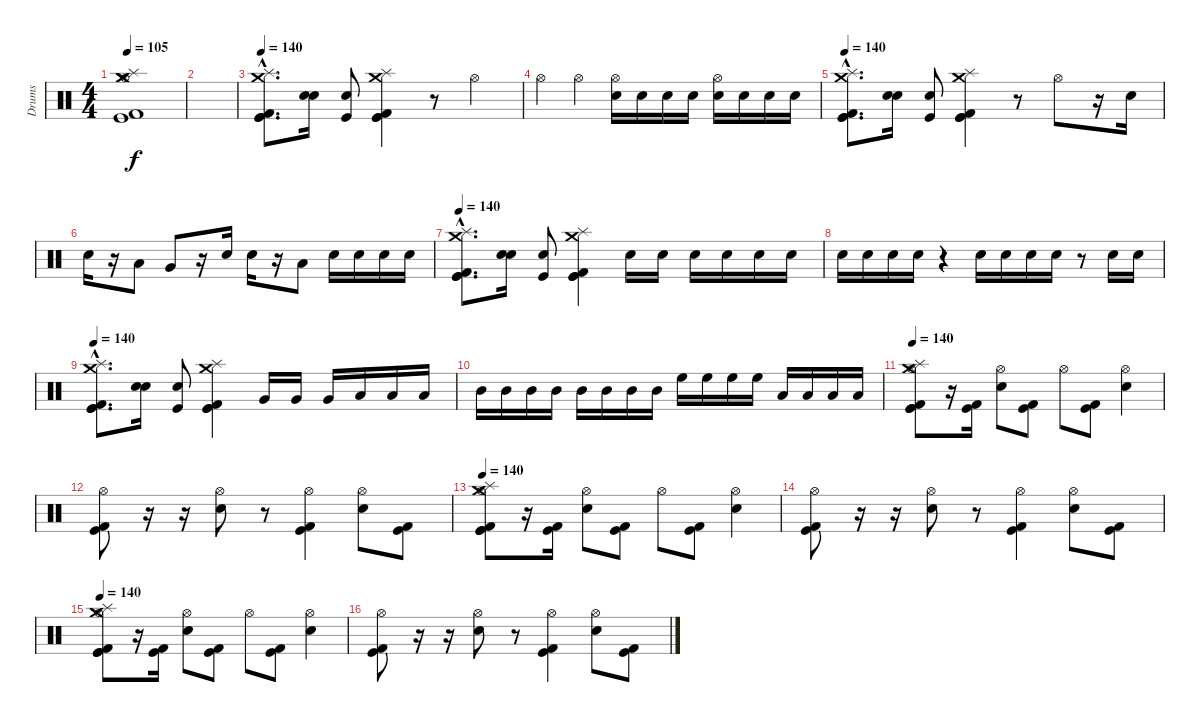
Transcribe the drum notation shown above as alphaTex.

\track ("Drums" "Drums") {instrument percussion}
\staff {score}
\articulation defaults
\ts (4 4)
\tempo 105
\clef neutral
\ks c
("Hi-Hat (open)" "Splash (hit)" "Kick (hit)" "Kick (hit) 2" "Crash medium (hit)" "Crash medium (hit)").1{dy f} |
|
\tempo 140
("Crash medium (hit)"{hac} "Splash (hit)"{hac} "Kick (hit)"{hac} "Kick (hit) 2"{hac} "Kick (hit)"{hac}).8{d} ("Snare (hit) 2" "Electric Snare (hit)").16 ("Kick (hit)" "Electric Snare (hit)").8 ("Crash medium (hit)" "Splash (hit)" "Kick (hit)" "Kick (hit) 2" "Kick (hit)").4 r.8 "Hi-Hat (open)".4 |
"Hi-Hat (open)".4 "Hi-Hat (open)".4 ("Hi-Hat (open)" "Snare (hit) 2").16 "Snare (hit) 2".16 "Snare (hit) 2".16 "Snare (hit) 2".16 ("Hi-Hat (open)" "Snare (hit) 2").16 "Snare (hit) 2".16 "Snare (hit) 2".16 "Snare (hit) 2".16 |
\tempo 140
("Crash medium (hit)"{hac} "Splash (hit)"{hac} "Kick (hit)"{hac} "Kick (hit) 2"{hac} "Kick (hit)"{hac}).8{d} ("Snare (hit) 2" "Electric Snare (hit)").16 ("Kick (hit)" "Electric Snare (hit)").8 ("Crash medium (hit)" "Splash (hit)" "Kick (hit)" "Kick (hit) 2" "Kick (hit)").4 r.8 "Hi-Hat (open)".8 r.16 "Snare (hit) 2".16 |
"Snare (hit) 2".16 r.16 "Low Tom (hit)".8 "Very Low Tom (hit)".8 r.16 "Snare (hit) 2".16 "Snare (hit) 2".16 r.16 "Low Tom (hit)".8 "Snare (hit) 2".16 "Snare (hit) 2".16 "Snare (hit) 2".16 "Snare (hit) 2".16 |
\tempo 140
("Crash medium (hit)"{hac} "Splash (hit)"{hac} "Kick (hit)"{hac} "Kick (hit) 2"{hac} "Kick (hit)"{hac}).8{d} ("Snare (hit) 2" "Electric Snare (hit)").16 ("Kick (hit)" "Electric Snare (hit)").8 ("Crash medium (hit)" "Splash (hit)" "Kick (hit)" "Kick (hit) 2" "Kick (hit)").4 "Snare (hit) 2".16 "Snare (hit) 2".16 "Snare (hit) 2".16 "Snare (hit) 2".16 "Snare (hit) 2".16 "Snare (hit) 2".16 |
"Snare (hit) 2".16 "Snare (hit) 2".16 "Snare (hit) 2".16 "Snare (hit) 2".16 r.4 "Snare (hit) 2".16 "Snare (hit) 2".16 "Snare (hit) 2".16 "Snare (hit) 2".16 r.8 "Snare (hit) 2".16 "Snare (hit) 2".16 |
\tempo 140
("Crash medium (hit)"{hac} "Splash (hit)"{hac} "Kick (hit)"{hac} "Kick (hit) 2"{hac} "Kick (hit)"{hac}).8{d} ("Snare (hit) 2" "Electric Snare (hit)").16 ("Kick (hit)" "Electric Snare (hit)").8 ("Crash medium (hit)" "Splash (hit)" "Kick (hit)" "Kick (hit) 2" "Kick (hit)").4 "Very Low Tom (hit)".16 "Very Low Tom (hit)".16 "Very Low Tom (hit)".16 "Low Tom (hit)".16 "Low Tom (hit)".16 "Low Tom (hit)".16 |
"Mid Tom (hit)".16 "Mid Tom (hit)".16 "Mid Tom (hit)".16 "Mid Tom (hit)".16 "Mid Tom (hit)".16 "Mid Tom (hit)".16 "Mid Tom (hit)".16 "Mid Tom (hit)".16 "High Floor Tom (hit)".16 "High Floor Tom (hit)".16 "High Floor Tom (hit)".16 "High Floor Tom (hit)".16 "Low Floor Tom (hit)".16 "Low Floor Tom (hit)".16 "Low Floor Tom (hit)".16 "Low Floor Tom (hit)".16 |
\tempo 140
("Hi-Hat (open)" "Kick (hit)" "Kick (hit) 2" "Splash (hit)" "Crash medium (hit)" "Kick (hit)").8 r.16 ("Kick (hit)" "Kick (hit) 2").16 ("Hi-Hat (open)" "Snare (hit) 2").8 ("Kick (hit)" "Kick (hit) 2").8 "Hi-Hat (open)".8 ("Kick (hit)" "Kick (hit) 2").8 ("Hi-Hat (open)" "Snare (hit) 2").4 |
("Hi-Hat (open)" "Kick (hit)" "Kick (hit) 2").8 r.16 r.16 ("Hi-Hat (open)" "Snare (hit) 2").8 r.8 ("Hi-Hat (open)" "Kick (hit)" "Kick (hit) 2").4 ("Hi-Hat (open)" "Snare (hit) 2").8 ("Kick (hit) 2" "Kick (hit)").8 |
\tempo 140
("Hi-Hat (open)" "Kick (hit)" "Kick (hit) 2" "Splash (hit)" "Crash medium (hit)" "Kick (hit)").8 r.16 ("Kick (hit)" "Kick (hit) 2").16 ("Hi-Hat (open)" "Snare (hit) 2").8 ("Kick (hit)" "Kick (hit) 2").8 "Hi-Hat (open)".8 ("Kick (hit)" "Kick (hit) 2").8 ("Hi-Hat (open)" "Snare (hit) 2").4 |
("Hi-Hat (open)" "Kick (hit)" "Kick (hit) 2").8 r.16 r.16 ("Hi-Hat (open)" "Snare (hit) 2").8 r.8 ("Hi-Hat (open)" "Kick (hit)" "Kick (hit) 2").4 ("Hi-Hat (open)" "Snare (hit) 2").8 ("Kick (hit) 2" "Kick (hit)").8 |
\tempo 140
("Hi-Hat (open)" "Kick (hit)" "Kick (hit) 2" "Splash (hit)" "Crash medium (hit)" "Kick (hit)").8 r.16 ("Kick (hit)" "Kick (hit) 2").16 ("Hi-Hat (open)" "Snare (hit) 2").8 ("Kick (hit)" "Kick (hit) 2").8 "Hi-Hat (open)".8 ("Kick (hit)" "Kick (hit) 2").8 ("Hi-Hat (open)" "Snare (hit) 2").4 |
("Hi-Hat (open)" "Kick (hit)" "Kick (hit) 2").8 r.16 r.16 ("Hi-Hat (open)" "Snare (hit) 2").8 r.8 ("Hi-Hat (open)" "Kick (hit)" "Kick (hit) 2").4 ("Hi-Hat (open)" "Snare (hit) 2").8 ("Kick (hit) 2" "Kick (hit)").8
